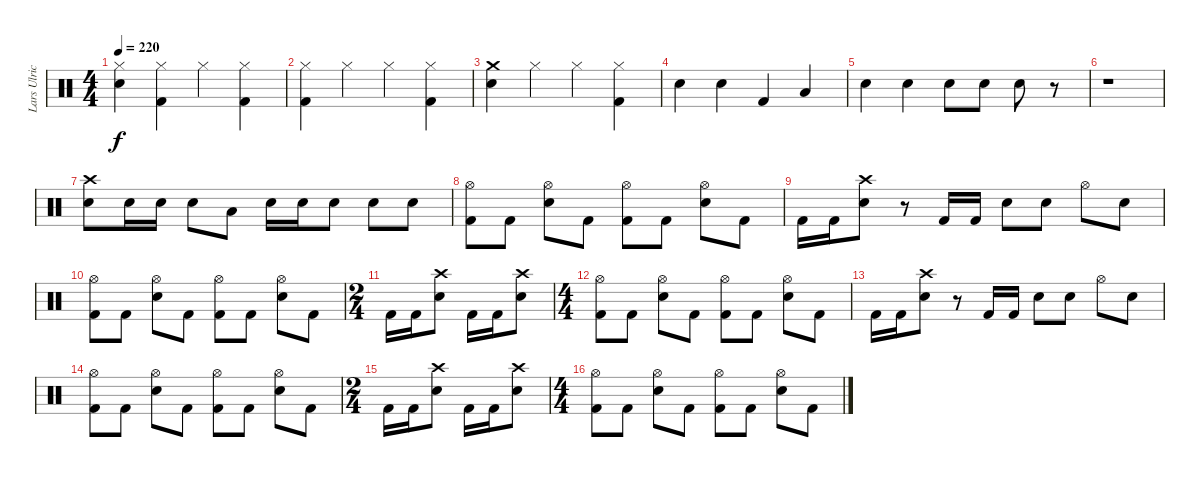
\track ("Lars Ulrich (Drums)" "Lars Ulric") {instrument percussion}
\staff {score}
\articulation defaults
\ts (4 4)
\tempo 220
\clef neutral
\ks c
("Hi-Hat (closed)" "Snare (hit) 2").4{dy f} ("Hi-Hat (closed)" "Kick (hit) 2").4 "Hi-Hat (closed)".4 ("Hi-Hat (closed)" "Kick (hit) 2").4 |
("Hi-Hat (closed)" "Kick (hit) 2").4 "Hi-Hat (closed)".4 "Hi-Hat (closed)".4 ("Hi-Hat (closed)" "Kick (hit) 2").4 |
("Crash medium (hit)" "Snare (hit) 2").4 "Hi-Hat (closed)".4 "Hi-Hat (closed)".4 ("Hi-Hat (closed)" "Kick (hit) 2").4 |
"Snare (hit) 2".4 "Snare (hit) 2".4 "Kick (hit) 2".4 "Low Tom (hit)".4 |
"Snare (hit) 2".4 "Snare (hit) 2".4 "Snare (hit) 2".8 "Snare (hit) 2".8 "Snare (hit) 2".8 r.8 |
r.1 |
("Crash high (hit)" "Snare (hit) 2").8 "Snare (hit) 2".16 "Snare (hit) 2".16 "Snare (hit) 2".8 "Low Tom (hit)".8 "Snare (hit) 2".16 "Snare (hit) 2".16 "Snare (hit) 2".8 "Snare (hit) 2".8 "Snare (hit) 2".8 |
("Hi-Hat (open)" "Kick (hit) 2").8 "Kick (hit) 2".8 ("Hi-Hat (open)" "Snare (hit) 2").8 "Kick (hit) 2".8 ("Hi-Hat (open)" "Kick (hit) 2").8 "Kick (hit) 2".8 ("Hi-Hat (open)" "Snare (hit) 2").8 "Kick (hit) 2".8 |
"Kick (hit) 2".16 "Kick (hit) 2".16 ("Crash high (hit)" "Snare (hit) 2").8 r.8 "Kick (hit) 2".16 "Kick (hit) 2".16 "Snare (hit) 2".8 "Snare (hit) 2".8 "Hi-Hat (open)".8 "Snare (hit) 2".8 |
("Hi-Hat (open)" "Kick (hit) 2").8 "Kick (hit) 2".8 ("Hi-Hat (open)" "Snare (hit) 2").8 "Kick (hit) 2".8 ("Hi-Hat (open)" "Kick (hit) 2").8 "Kick (hit) 2".8 ("Hi-Hat (open)" "Snare (hit) 2").8 "Kick (hit) 2".8 |
\ts (2 4)
"Kick (hit) 2".16 "Kick (hit) 2".16 ("Crash high (hit)" "Snare (hit) 2").8 "Kick (hit) 2".16 "Kick (hit) 2".16 ("Crash high (hit)" "Snare (hit) 2").8 |
\ts (4 4)
("Hi-Hat (open)" "Kick (hit) 2").8 "Kick (hit) 2".8 ("Hi-Hat (open)" "Snare (hit) 2").8 "Kick (hit) 2".8 ("Hi-Hat (open)" "Kick (hit) 2").8 "Kick (hit) 2".8 ("Hi-Hat (open)" "Snare (hit) 2").8 "Kick (hit) 2".8 |
"Kick (hit) 2".16 "Kick (hit) 2".16 ("Crash high (hit)" "Snare (hit) 2").8 r.8 "Kick (hit) 2".16 "Kick (hit) 2".16 "Snare (hit) 2".8 "Snare (hit) 2".8 "Hi-Hat (open)".8 "Snare (hit) 2".8 |
("Hi-Hat (open)" "Kick (hit) 2").8 "Kick (hit) 2".8 ("Hi-Hat (open)" "Snare (hit) 2").8 "Kick (hit) 2".8 ("Hi-Hat (open)" "Kick (hit) 2").8 "Kick (hit) 2".8 ("Hi-Hat (open)" "Snare (hit) 2").8 "Kick (hit) 2".8 |
\ts (2 4)
"Kick (hit) 2".16 "Kick (hit) 2".16 ("Crash high (hit)" "Snare (hit) 2").8 "Kick (hit) 2".16 "Kick (hit) 2".16 ("Crash high (hit)" "Snare (hit) 2").8 |
\ts (4 4)
("Hi-Hat (open)" "Kick (hit) 2").8 "Kick (hit) 2".8 ("Hi-Hat (open)" "Snare (hit) 2").8 "Kick (hit) 2".8 ("Hi-Hat (open)" "Kick (hit) 2").8 "Kick (hit) 2".8 ("Hi-Hat (open)" "Snare (hit) 2").8 "Kick (hit) 2".8
